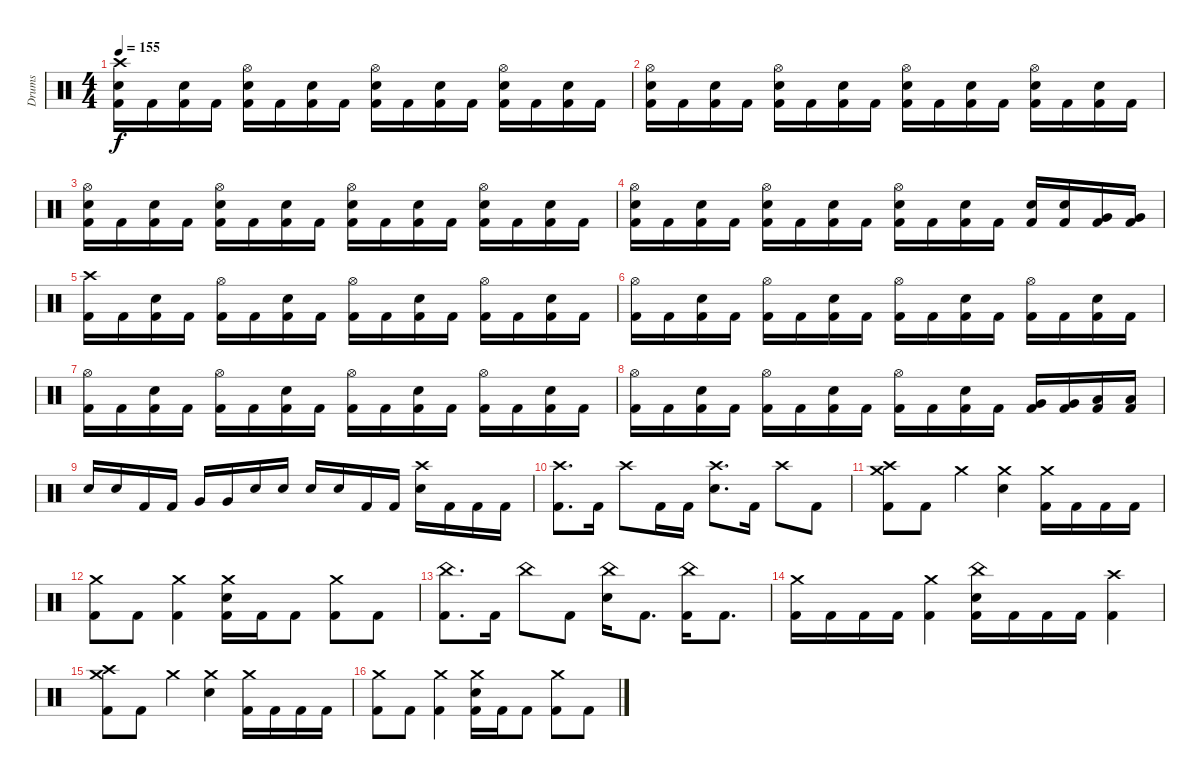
\track ("Drums" "Drums") {instrument percussion}
\staff {score}
\articulation defaults
\ts (4 4)
\tempo 155
\clef neutral
\ks c
("Crash high (hit)" "Electric Snare (hit)" "Kick (hit) 2").16{dy f} "Kick (hit) 2".16 ("Electric Snare (hit)" "Kick (hit) 2").16 "Kick (hit) 2".16 ("Hi-Hat (open)" "Electric Snare (hit)" "Kick (hit) 2").16 "Kick (hit) 2".16 ("Electric Snare (hit)" "Kick (hit) 2").16 "Kick (hit) 2".16 ("Hi-Hat (open)" "Electric Snare (hit)" "Kick (hit) 2").16 "Kick (hit) 2".16 ("Electric Snare (hit)" "Kick (hit) 2").16 "Kick (hit) 2".16 ("Hi-Hat (open)" "Electric Snare (hit)" "Kick (hit) 2").16 "Kick (hit) 2".16 ("Electric Snare (hit)" "Kick (hit) 2").16 "Kick (hit) 2".16 |
("Hi-Hat (open)" "Electric Snare (hit)" "Kick (hit) 2").16 "Kick (hit) 2".16 ("Electric Snare (hit)" "Kick (hit) 2").16 "Kick (hit) 2".16 ("Hi-Hat (open)" "Electric Snare (hit)" "Kick (hit) 2").16 "Kick (hit) 2".16 ("Electric Snare (hit)" "Kick (hit) 2").16 "Kick (hit) 2".16 ("Hi-Hat (open)" "Electric Snare (hit)" "Kick (hit) 2").16 "Kick (hit) 2".16 ("Electric Snare (hit)" "Kick (hit) 2").16 "Kick (hit) 2".16 ("Hi-Hat (open)" "Electric Snare (hit)" "Kick (hit) 2").16 "Kick (hit) 2".16 ("Electric Snare (hit)" "Kick (hit) 2").16 "Kick (hit) 2".16 |
("Hi-Hat (open)" "Electric Snare (hit)" "Kick (hit) 2").16 "Kick (hit) 2".16 ("Electric Snare (hit)" "Kick (hit) 2").16 "Kick (hit) 2".16 ("Hi-Hat (open)" "Electric Snare (hit)" "Kick (hit) 2").16 "Kick (hit) 2".16 ("Electric Snare (hit)" "Kick (hit) 2").16 "Kick (hit) 2".16 ("Hi-Hat (open)" "Electric Snare (hit)" "Kick (hit) 2").16 "Kick (hit) 2".16 ("Electric Snare (hit)" "Kick (hit) 2").16 "Kick (hit) 2".16 ("Hi-Hat (open)" "Electric Snare (hit)" "Kick (hit) 2").16 "Kick (hit) 2".16 ("Electric Snare (hit)" "Kick (hit) 2").16 "Kick (hit) 2".16 |
("Hi-Hat (open)" "Electric Snare (hit)" "Kick (hit) 2").16 "Kick (hit) 2".16 ("Electric Snare (hit)" "Kick (hit) 2").16 "Kick (hit) 2".16 ("Hi-Hat (open)" "Electric Snare (hit)" "Kick (hit) 2").16 "Kick (hit) 2".16 ("Electric Snare (hit)" "Kick (hit) 2").16 "Kick (hit) 2".16 ("Hi-Hat (open)" "Electric Snare (hit)" "Kick (hit) 2").16 "Kick (hit) 2".16 ("Electric Snare (hit)" "Kick (hit) 2").16 "Kick (hit) 2".16 ("Electric Snare (hit)" "Kick (hit) 2").16 ("Electric Snare (hit)" "Kick (hit) 2").16 ("Very Low Tom (hit)" "Kick (hit) 2").16 ("Very Low Tom (hit)" "Kick (hit) 2").16 |
("Crash high (hit)" "Kick (hit) 2").16 "Kick (hit) 2".16 ("Electric Snare (hit)" "Kick (hit) 2").16 "Kick (hit) 2".16 ("Hi-Hat (open)" "Kick (hit) 2").16 "Kick (hit) 2".16 ("Electric Snare (hit)" "Kick (hit) 2").16 "Kick (hit) 2".16 ("Hi-Hat (open)" "Kick (hit) 2").16 "Kick (hit) 2".16 ("Electric Snare (hit)" "Kick (hit) 2").16 "Kick (hit) 2".16 ("Hi-Hat (open)" "Kick (hit) 2").16 "Kick (hit) 2".16 ("Electric Snare (hit)" "Kick (hit) 2").16 "Kick (hit) 2".16 |
("Hi-Hat (open)" "Kick (hit) 2").16 "Kick (hit) 2".16 ("Electric Snare (hit)" "Kick (hit) 2").16 "Kick (hit) 2".16 ("Hi-Hat (open)" "Kick (hit) 2").16 "Kick (hit) 2".16 ("Electric Snare (hit)" "Kick (hit) 2").16 "Kick (hit) 2".16 ("Hi-Hat (open)" "Kick (hit) 2").16 "Kick (hit) 2".16 ("Electric Snare (hit)" "Kick (hit) 2").16 "Kick (hit) 2".16 ("Hi-Hat (open)" "Kick (hit) 2").16 "Kick (hit) 2".16 ("Electric Snare (hit)" "Kick (hit) 2").16 "Kick (hit) 2".16 |
("Hi-Hat (open)" "Kick (hit) 2").16 "Kick (hit) 2".16 ("Electric Snare (hit)" "Kick (hit) 2").16 "Kick (hit) 2".16 ("Hi-Hat (open)" "Kick (hit) 2").16 "Kick (hit) 2".16 ("Electric Snare (hit)" "Kick (hit) 2").16 "Kick (hit) 2".16 ("Hi-Hat (open)" "Kick (hit) 2").16 "Kick (hit) 2".16 ("Electric Snare (hit)" "Kick (hit) 2").16 "Kick (hit) 2".16 ("Hi-Hat (open)" "Kick (hit) 2").16 "Kick (hit) 2".16 ("Electric Snare (hit)" "Kick (hit) 2").16 "Kick (hit) 2".16 |
("Hi-Hat (open)" "Kick (hit) 2").16 "Kick (hit) 2".16 ("Electric Snare (hit)" "Kick (hit) 2").16 "Kick (hit) 2".16 ("Hi-Hat (open)" "Kick (hit) 2").16 "Kick (hit) 2".16 ("Electric Snare (hit)" "Kick (hit) 2").16 "Kick (hit) 2".16 ("Hi-Hat (open)" "Kick (hit) 2").16 "Kick (hit) 2".16 ("Electric Snare (hit)" "Kick (hit) 2").16 "Kick (hit) 2".16 ("Very Low Tom (hit)" "Kick (hit) 2").16 ("Very Low Tom (hit)" "Kick (hit) 2").16 ("Low Floor Tom (hit)" "Kick (hit) 2").16 ("Low Floor Tom (hit)" "Kick (hit) 2").16 |
"Electric Snare (hit)".16 "Electric Snare (hit)".16 "Kick (hit) 2".16 "Kick (hit) 2".16 "Very Low Tom (hit)".16 "Very Low Tom (hit)".16 "Electric Snare (hit)".16 "Electric Snare (hit)".16 "Electric Snare (hit)".16 "Electric Snare (hit)".16 "Kick (hit) 2".16 "Kick (hit) 2".16 ("Crash high (hit)" "Electric Snare (hit)").16 "Kick (hit) 2".16 "Kick (hit) 2".16 "Kick (hit) 2".16 |
("Crash high (hit)" "Kick (hit) 2").8{d} "Kick (hit) 2".16 "Crash high (hit)".8 "Kick (hit) 2".16 "Kick (hit) 2".16 ("Crash high (hit)" "Electric Snare (hit)").8{d} "Kick (hit) 2".16 "Crash high (hit)".8 "Kick (hit) 2".8 |
("Crash high (hit)" "Crash medium (hit)" "Kick (hit) 2").8 "Kick (hit) 2".8 "Crash medium (hit)".4 ("Crash medium (hit)" "Electric Snare (hit)").4 ("Crash medium (hit)" "Kick (hit) 2").16 "Kick (hit) 2".16 "Kick (hit) 2".16 "Kick (hit) 2".16 |
("Crash medium (hit)" "Kick (hit) 2").8 "Kick (hit) 2".8 ("Crash medium (hit)" "Kick (hit) 2").4 ("Crash medium (hit)" "Electric Snare (hit)" "Kick (hit) 2").16 "Kick (hit) 2".16 "Kick (hit) 2".8 ("Crash medium (hit)" "Kick (hit) 2").8 "Kick (hit) 2".8 |
("China (hit)" "Kick (hit) 2").8{d} "Kick (hit) 2".16 "China (hit)".8 "Kick (hit) 2".8 ("China (hit)" "Electric Snare (hit)").16 "Kick (hit) 2".8{d} ("China (hit)" "Kick (hit) 2").16 "Kick (hit) 2".8{d} |
("Crash medium (hit)" "Kick (hit) 2").16 "Kick (hit) 2".16 "Kick (hit) 2".16 "Kick (hit) 2".16 ("Crash medium (hit)" "Kick (hit) 2").4 ("China (hit)" "Electric Snare (hit)" "Kick (hit) 2").16 "Kick (hit) 2".16 "Kick (hit) 2".16 "Kick (hit) 2".16 ("Crash high (hit)" "Kick (hit) 2").4 |
("Crash high (hit)" "Crash medium (hit)" "Kick (hit) 2").8 "Kick (hit) 2".8 "Crash medium (hit)".4 ("Crash medium (hit)" "Electric Snare (hit)").4 ("Crash medium (hit)" "Kick (hit) 2").16 "Kick (hit) 2".16 "Kick (hit) 2".16 "Kick (hit) 2".16 |
("Crash medium (hit)" "Kick (hit) 2").8 "Kick (hit) 2".8 ("Crash medium (hit)" "Kick (hit) 2").4 ("Crash medium (hit)" "Electric Snare (hit)" "Kick (hit) 2").16 "Kick (hit) 2".16 "Kick (hit) 2".8 ("Crash medium (hit)" "Kick (hit) 2").8 "Kick (hit) 2".8
